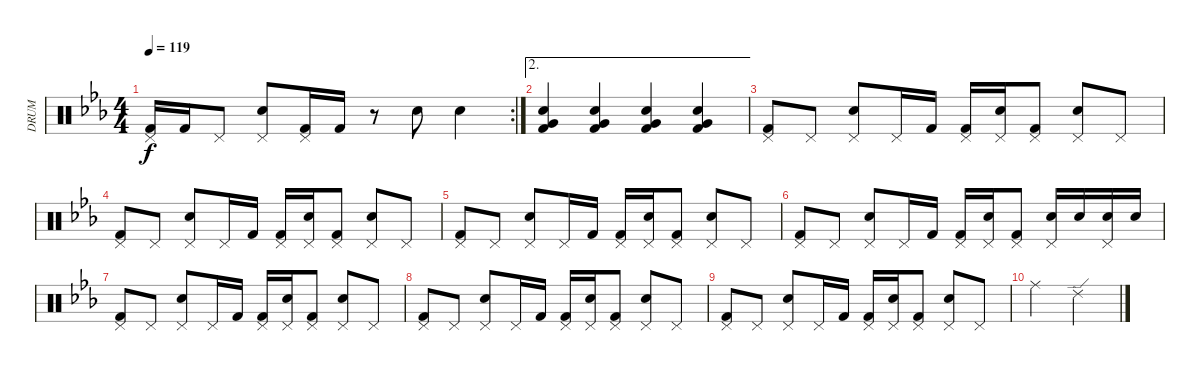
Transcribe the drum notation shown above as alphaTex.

\track ("DRUM" "DRUM") {instrument percussion}
\staff {score}
\articulation defaults
\rc 2
\ts (4 4)
\tempo 119
\clef neutral
\ks eb
("Pedal Hi-Hat (hit)" "Kick (hit) 2").16{dy f} "Kick (hit) 2".16 "Pedal Hi-Hat (hit)".8 ("Pedal Hi-Hat (hit)" "Electric Snare (hit)").8 ("Pedal Hi-Hat (hit)" "Kick (hit) 2").16 "Kick (hit) 2".16 r.8 "Electric Snare (hit)".8 "Electric Snare (hit)".4 |
\ae 2
("Very Low Tom (hit)" "Electric Snare (hit)" "Kick (hit) 2").4 ("Very Low Tom (hit)" "Electric Snare (hit)" "Kick (hit) 2").4 ("Very Low Tom (hit)" "Electric Snare (hit)" "Kick (hit) 2").4 ("Very Low Tom (hit)" "Electric Snare (hit)" "Kick (hit) 2").4 |
("Pedal Hi-Hat (hit)" "Kick (hit) 2").8 "Pedal Hi-Hat (hit)".8 ("Pedal Hi-Hat (hit)" "Electric Snare (hit)").8 "Pedal Hi-Hat (hit)".16 "Kick (hit) 2".16 ("Pedal Hi-Hat (hit)" "Kick (hit) 2").16 ("Pedal Hi-Hat (hit)" "Electric Snare (hit)").16 ("Pedal Hi-Hat (hit)" "Kick (hit) 2").8 ("Pedal Hi-Hat (hit)" "Electric Snare (hit)").8 "Pedal Hi-Hat (hit)".8 |
("Pedal Hi-Hat (hit)" "Kick (hit) 2").8 "Pedal Hi-Hat (hit)".8 ("Pedal Hi-Hat (hit)" "Electric Snare (hit)").8 "Pedal Hi-Hat (hit)".16 "Kick (hit) 2".16 ("Pedal Hi-Hat (hit)" "Kick (hit) 2").16 ("Pedal Hi-Hat (hit)" "Electric Snare (hit)").16 ("Pedal Hi-Hat (hit)" "Kick (hit) 2").8 ("Pedal Hi-Hat (hit)" "Electric Snare (hit)").8 "Pedal Hi-Hat (hit)".8 |
("Pedal Hi-Hat (hit)" "Kick (hit) 2").8 "Pedal Hi-Hat (hit)".8 ("Pedal Hi-Hat (hit)" "Electric Snare (hit)").8 "Pedal Hi-Hat (hit)".16 "Kick (hit) 2".16 ("Pedal Hi-Hat (hit)" "Kick (hit) 2").16 ("Pedal Hi-Hat (hit)" "Electric Snare (hit)").16 ("Pedal Hi-Hat (hit)" "Kick (hit) 2").8 ("Pedal Hi-Hat (hit)" "Electric Snare (hit)").8 "Pedal Hi-Hat (hit)".8 |
("Pedal Hi-Hat (hit)" "Kick (hit) 2").8 "Pedal Hi-Hat (hit)".8 ("Pedal Hi-Hat (hit)" "Electric Snare (hit)").8 "Pedal Hi-Hat (hit)".16 "Kick (hit) 2".16 ("Pedal Hi-Hat (hit)" "Kick (hit) 2").16 ("Pedal Hi-Hat (hit)" "Electric Snare (hit)").16 ("Pedal Hi-Hat (hit)" "Kick (hit) 2").8 ("Pedal Hi-Hat (hit)" "Electric Snare (hit)").16 "Electric Snare (hit)".16 ("Pedal Hi-Hat (hit)" "Electric Snare (hit)").16 "Electric Snare (hit)".16 |
("Pedal Hi-Hat (hit)" "Kick (hit) 2").8 "Pedal Hi-Hat (hit)".8 ("Pedal Hi-Hat (hit)" "Electric Snare (hit)").8 "Pedal Hi-Hat (hit)".16 "Kick (hit) 2".16 ("Pedal Hi-Hat (hit)" "Kick (hit) 2").16 ("Pedal Hi-Hat (hit)" "Electric Snare (hit)").16 ("Pedal Hi-Hat (hit)" "Kick (hit) 2").8 ("Pedal Hi-Hat (hit)" "Electric Snare (hit)").8 "Pedal Hi-Hat (hit)".8 |
("Pedal Hi-Hat (hit)" "Kick (hit) 2").8 "Pedal Hi-Hat (hit)".8 ("Pedal Hi-Hat (hit)" "Electric Snare (hit)").8 "Pedal Hi-Hat (hit)".16 "Kick (hit) 2".16 ("Pedal Hi-Hat (hit)" "Kick (hit) 2").16 ("Pedal Hi-Hat (hit)" "Electric Snare (hit)").16 ("Pedal Hi-Hat (hit)" "Kick (hit) 2").8 ("Pedal Hi-Hat (hit)" "Electric Snare (hit)").8 "Pedal Hi-Hat (hit)".8 |
("Pedal Hi-Hat (hit)" "Kick (hit) 2").8 "Pedal Hi-Hat (hit)".8 ("Pedal Hi-Hat (hit)" "Electric Snare (hit)").8 "Pedal Hi-Hat (hit)".16 "Kick (hit) 2".16 ("Pedal Hi-Hat (hit)" "Kick (hit) 2").16 ("Pedal Hi-Hat (hit)" "Electric Snare (hit)").16 ("Pedal Hi-Hat (hit)" "Kick (hit) 2").8 ("Pedal Hi-Hat (hit)" "Electric Snare (hit)").8 "Pedal Hi-Hat (hit)".8 |
"Ride (middle)".2 "Ride (edge) 2".2
